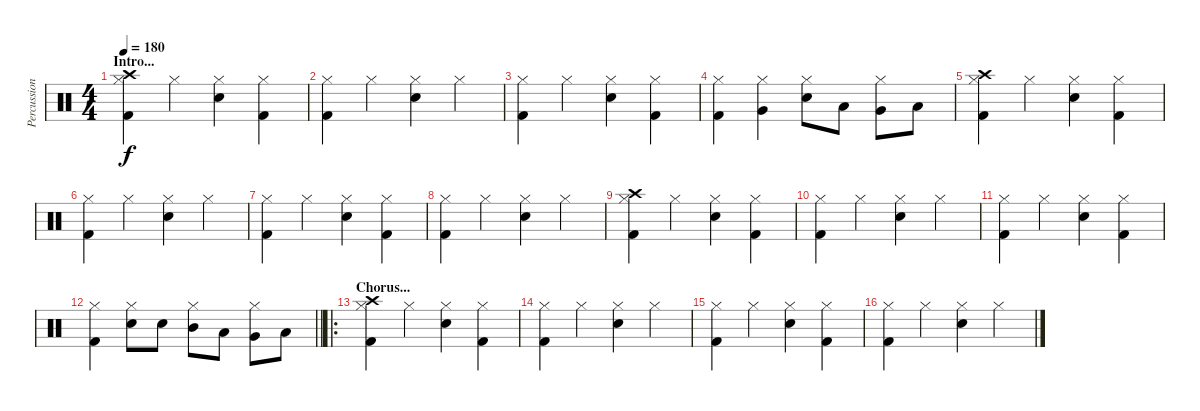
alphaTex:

\track ("Percussion" "Percussion") {instrument percussion}
\staff {score}
\articulation defaults
\ts (4 4)
\section ("" "Intro...")
\tempo 180
\clef neutral
\ks c
("Kick (hit) 2" "Crash high (hit)" "Hi-Hat (closed)").4{dy f} "Hi-Hat (closed)".4 ("Snare (hit) 2" "Hi-Hat (closed)").4 ("Kick (hit) 2" "Hi-Hat (closed)").4 |
("Kick (hit) 2" "Hi-Hat (closed)").4 "Hi-Hat (closed)".4 ("Snare (hit) 2" "Hi-Hat (closed)").4 "Hi-Hat (closed)".4 |
("Kick (hit) 2" "Hi-Hat (closed)").4 "Hi-Hat (closed)".4 ("Snare (hit) 2" "Hi-Hat (closed)").4 ("Kick (hit) 2" "Hi-Hat (closed)").4 |
("Kick (hit) 2" "Hi-Hat (closed)").4 ("Very Low Tom (hit)" "Hi-Hat (closed)").4 ("Snare (hit) 2" "Hi-Hat (closed)").8 "Low Tom (hit)".8 ("Very Low Tom (hit)" "Hi-Hat (closed)").8 "Low Floor Tom (hit)".8 |
("Kick (hit) 2" "Crash high (hit)" "Hi-Hat (closed)").4 "Hi-Hat (closed)".4 ("Snare (hit) 2" "Hi-Hat (closed)").4 ("Kick (hit) 2" "Hi-Hat (closed)").4 |
("Kick (hit) 2" "Hi-Hat (closed)").4 "Hi-Hat (closed)".4 ("Snare (hit) 2" "Hi-Hat (closed)").4 "Hi-Hat (closed)".4 |
("Kick (hit) 2" "Hi-Hat (closed)").4 "Hi-Hat (closed)".4 ("Snare (hit) 2" "Hi-Hat (closed)").4 ("Kick (hit) 2" "Hi-Hat (closed)").4 |
("Kick (hit) 2" "Hi-Hat (closed)").4 "Hi-Hat (closed)".4 ("Snare (hit) 2" "Hi-Hat (closed)").4 "Hi-Hat (closed)".4 |
("Kick (hit) 2" "Crash high (hit)" "Hi-Hat (closed)").4 "Hi-Hat (closed)".4 ("Snare (hit) 2" "Hi-Hat (closed)").4 ("Kick (hit) 2" "Hi-Hat (closed)").4 |
("Kick (hit) 2" "Hi-Hat (closed)").4 "Hi-Hat (closed)".4 ("Snare (hit) 2" "Hi-Hat (closed)").4 "Hi-Hat (closed)".4 |
("Kick (hit) 2" "Hi-Hat (closed)").4 "Hi-Hat (closed)".4 ("Snare (hit) 2" "Hi-Hat (closed)").4 ("Kick (hit) 2" "Hi-Hat (closed)").4 |
\barLineRight lightlight
("Kick (hit) 2" "Hi-Hat (closed)").4 ("Snare (hit) 2" "Hi-Hat (closed)").8 "Snare (hit) 2".8 ("Mid Tom (hit)" "Hi-Hat (closed)").8 "Low Tom (hit)".8 ("Very Low Tom (hit)" "Hi-Hat (closed)").8 "Low Floor Tom (hit)".8 |
\ro
\section ("" "Chorus...")
("Kick (hit) 2" "Crash high (hit)" "Hi-Hat (closed)").4 "Hi-Hat (closed)".4 ("Snare (hit) 2" "Hi-Hat (closed)").4 ("Kick (hit) 2" "Hi-Hat (closed)").4 |
("Kick (hit) 2" "Hi-Hat (closed)").4 "Hi-Hat (closed)".4 ("Snare (hit) 2" "Hi-Hat (closed)").4 "Hi-Hat (closed)".4 |
("Kick (hit) 2" "Hi-Hat (closed)").4 "Hi-Hat (closed)".4 ("Snare (hit) 2" "Hi-Hat (closed)").4 ("Kick (hit) 2" "Hi-Hat (closed)").4 |
("Kick (hit) 2" "Hi-Hat (closed)").4 "Hi-Hat (closed)".4 ("Snare (hit) 2" "Hi-Hat (closed)").4 "Hi-Hat (closed)".4
